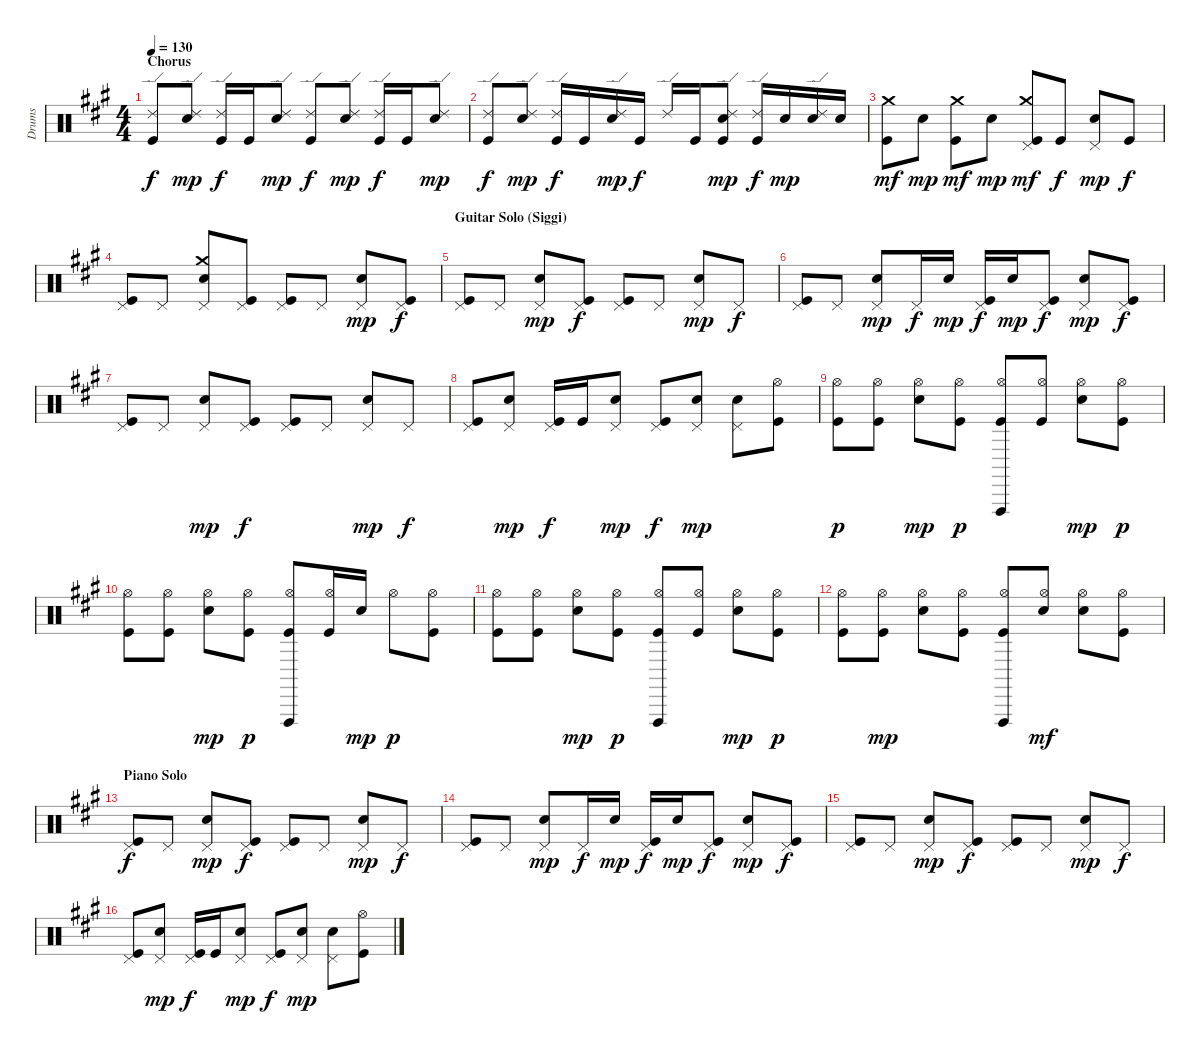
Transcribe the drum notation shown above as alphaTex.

\track ("Drums" "Drums") {instrument percussion}
\staff {score}
\articulation defaults
\ts (4 4)
\section ("" "Chorus")
\tempo 130
\clef neutral
\ks a
("Ride (edge) 2" "Kick (hit)").8{dy f} ("Ride (edge) 2" "Electric Snare (hit)").8{dy mp} ("Ride (edge) 2" "Kick (hit)").16{dy f} "Kick (hit)".16 ("Ride (edge) 2" "Electric Snare (hit)").8{dy mp} ("Ride (edge) 2" "Kick (hit)").8{dy f} ("Ride (edge) 2" "Electric Snare (hit)").8{dy mp} ("Ride (edge) 2" "Kick (hit)").16{dy f} "Kick (hit)".16 ("Ride (edge) 2" "Electric Snare (hit)").8{dy mp} |
("Ride (edge) 2" "Kick (hit)").8{dy f} ("Ride (edge) 2" "Electric Snare (hit)").8{dy mp} ("Ride (edge) 2" "Kick (hit)").16{dy f} "Kick (hit)".16 ("Ride (edge) 2" "Electric Snare (hit)").16{dy mp} "Kick (hit)".16{dy f} "Ride (edge) 2".16 "Kick (hit)".16 ("Ride (edge) 2" "Electric Snare (hit)" "Kick (hit)").8{dy mp} ("Ride (edge) 2" "Kick (hit)").16{dy f} "Electric Snare (hit)".16{dy mp} ("Ride (edge) 2" "Electric Snare (hit)").16 "Electric Snare (hit)".16 |
("Crash medium (hit)" "Kick (hit)").8{dy mf} "Electric Snare (hit)".8{dy mp} ("Crash medium (hit)" "Kick (hit)").8{dy mf} "Electric Snare (hit)".8{dy mp} ("Crash medium (hit)" "Pedal Hi-Hat (hit)" "Kick (hit)").8{dy mf} "Kick (hit)".8{dy f} ("Pedal Hi-Hat (hit)" "Electric Snare (hit)").8{dy mp} "Kick (hit)".8{dy f} |
("Pedal Hi-Hat (hit)" "Kick (hit)").8 "Pedal Hi-Hat (hit)".8 ("Crash medium (hit)" "Pedal Hi-Hat (hit)" "Electric Snare (hit)").8 ("Pedal Hi-Hat (hit)" "Kick (hit)").8 ("Pedal Hi-Hat (hit)" "Kick (hit)").8 "Pedal Hi-Hat (hit)".8 ("Pedal Hi-Hat (hit)" "Electric Snare (hit)").8{dy mp} ("Pedal Hi-Hat (hit)" "Kick (hit)").8{dy f} |
\section ("" "Guitar Solo (Siggi)")
("Pedal Hi-Hat (hit)" "Kick (hit)").8 "Pedal Hi-Hat (hit)".8 ("Pedal Hi-Hat (hit)" "Electric Snare (hit)").8{dy mp} ("Pedal Hi-Hat (hit)" "Kick (hit)").8{dy f} ("Pedal Hi-Hat (hit)" "Kick (hit)").8 "Pedal Hi-Hat (hit)".8 ("Pedal Hi-Hat (hit)" "Electric Snare (hit)").8{dy mp} "Pedal Hi-Hat (hit)".8{dy f} |
("Pedal Hi-Hat (hit)" "Kick (hit)").8 "Pedal Hi-Hat (hit)".8 ("Pedal Hi-Hat (hit)" "Electric Snare (hit)").8{dy mp} "Pedal Hi-Hat (hit)".16{dy f} "Electric Snare (hit)".16{dy mp} ("Pedal Hi-Hat (hit)" "Kick (hit)").16{dy f} "Electric Snare (hit)".16{dy mp} ("Pedal Hi-Hat (hit)" "Kick (hit)").8{dy f} ("Pedal Hi-Hat (hit)" "Electric Snare (hit)").8{dy mp} ("Pedal Hi-Hat (hit)" "Kick (hit)").8{dy f} |
("Pedal Hi-Hat (hit)" "Kick (hit)").8 "Pedal Hi-Hat (hit)".8 ("Pedal Hi-Hat (hit)" "Electric Snare (hit)").8{dy mp} ("Pedal Hi-Hat (hit)" "Kick (hit)").8{dy f} ("Pedal Hi-Hat (hit)" "Kick (hit)").8 "Pedal Hi-Hat (hit)".8 ("Pedal Hi-Hat (hit)" "Electric Snare (hit)").8{dy mp} "Pedal Hi-Hat (hit)".8{dy f} |
("Pedal Hi-Hat (hit)" "Kick (hit)").8 ("Pedal Hi-Hat (hit)" "Electric Snare (hit)").8{dy mp} ("Pedal Hi-Hat (hit)" "Kick (hit)").16{dy f} "Kick (hit)".16 ("Pedal Hi-Hat (hit)" "Electric Snare (hit)").8{dy mp} ("Pedal Hi-Hat (hit)" "Kick (hit)").8{dy f} ("Pedal Hi-Hat (hit)" "Electric Snare (hit)").8{dy mp} ("Pedal Hi-Hat (hit)" "Electric Snare (hit)").8 ("Hi-Hat (open)" "Kick (hit)").8 |
("Hi-Hat (open)" "Kick (hit)").8{dy p} ("Hi-Hat (open)" "Kick (hit)").8 ("Hi-Hat (open)" "Electric Snare (hit)").8{dy mp} ("Hi-Hat (open)" "Kick (hit)").8{dy p} ("Hi-Hat (open)" "Vibraslap (hit)" "Kick (hit)").8 ("Hi-Hat (open)" "Kick (hit)").8 ("Hi-Hat (open)" "Electric Snare (hit)").8{dy mp} ("Hi-Hat (open)" "Kick (hit)").8{dy p} |
("Hi-Hat (open)" "Kick (hit)").8 ("Hi-Hat (open)" "Kick (hit)").8 ("Hi-Hat (open)" "Electric Snare (hit)").8{dy mp} ("Hi-Hat (open)" "Kick (hit)").8{dy p} ("Hi-Hat (open)" "Vibraslap (hit)" "Kick (hit)").8 ("Hi-Hat (open)" "Kick (hit)").16 "Electric Snare (hit)".16{dy mp} "Hi-Hat (open)".8{dy p} ("Hi-Hat (open)" "Kick (hit)").8 |
("Hi-Hat (open)" "Kick (hit)").8 ("Hi-Hat (open)" "Kick (hit)").8 ("Hi-Hat (open)" "Electric Snare (hit)").8{dy mp} ("Hi-Hat (open)" "Kick (hit)").8{dy p} ("Hi-Hat (open)" "Vibraslap (hit)" "Kick (hit)").8 ("Hi-Hat (open)" "Kick (hit)").8 ("Hi-Hat (open)" "Electric Snare (hit)").8{dy mp} ("Hi-Hat (open)" "Kick (hit)").8{dy p} |
("Hi-Hat (open)" "Kick (hit)").8 ("Hi-Hat (open)" "Kick (hit)").8{dy mp} ("Hi-Hat (open)" "Electric Snare (hit)").8 ("Hi-Hat (open)" "Kick (hit)").8 ("Hi-Hat (open)" "Vibraslap (hit)" "Kick (hit)").8 ("Hi-Hat (open)" "Electric Snare (hit)").8{dy mf} ("Hi-Hat (open)" "Electric Snare (hit)").8 ("Hi-Hat (open)" "Kick (hit)").8 |
\section ("" "Piano Solo")
("Pedal Hi-Hat (hit)" "Kick (hit)").8{dy f} "Pedal Hi-Hat (hit)".8 ("Pedal Hi-Hat (hit)" "Electric Snare (hit)").8{dy mp} ("Pedal Hi-Hat (hit)" "Kick (hit)").8{dy f} ("Pedal Hi-Hat (hit)" "Kick (hit)").8 "Pedal Hi-Hat (hit)".8 ("Pedal Hi-Hat (hit)" "Electric Snare (hit)").8{dy mp} "Pedal Hi-Hat (hit)".8{dy f} |
("Pedal Hi-Hat (hit)" "Kick (hit)").8 "Pedal Hi-Hat (hit)".8 ("Pedal Hi-Hat (hit)" "Electric Snare (hit)").8{dy mp} "Pedal Hi-Hat (hit)".16{dy f} "Electric Snare (hit)".16{dy mp} ("Pedal Hi-Hat (hit)" "Kick (hit)").16{dy f} "Electric Snare (hit)".16{dy mp} ("Pedal Hi-Hat (hit)" "Kick (hit)").8{dy f} ("Pedal Hi-Hat (hit)" "Electric Snare (hit)").8{dy mp} ("Pedal Hi-Hat (hit)" "Kick (hit)").8{dy f} |
("Pedal Hi-Hat (hit)" "Kick (hit)").8 "Pedal Hi-Hat (hit)".8 ("Pedal Hi-Hat (hit)" "Electric Snare (hit)").8{dy mp} ("Pedal Hi-Hat (hit)" "Kick (hit)").8{dy f} ("Pedal Hi-Hat (hit)" "Kick (hit)").8 "Pedal Hi-Hat (hit)".8 ("Pedal Hi-Hat (hit)" "Electric Snare (hit)").8{dy mp} "Pedal Hi-Hat (hit)".8{dy f} |
("Pedal Hi-Hat (hit)" "Kick (hit)").8 ("Pedal Hi-Hat (hit)" "Electric Snare (hit)").8{dy mp} ("Pedal Hi-Hat (hit)" "Kick (hit)").16{dy f} "Kick (hit)".16 ("Pedal Hi-Hat (hit)" "Electric Snare (hit)").8{dy mp} ("Pedal Hi-Hat (hit)" "Kick (hit)").8{dy f} ("Pedal Hi-Hat (hit)" "Electric Snare (hit)").8{dy mp} ("Pedal Hi-Hat (hit)" "Electric Snare (hit)").8 ("Hi-Hat (open)" "Kick (hit)").8
